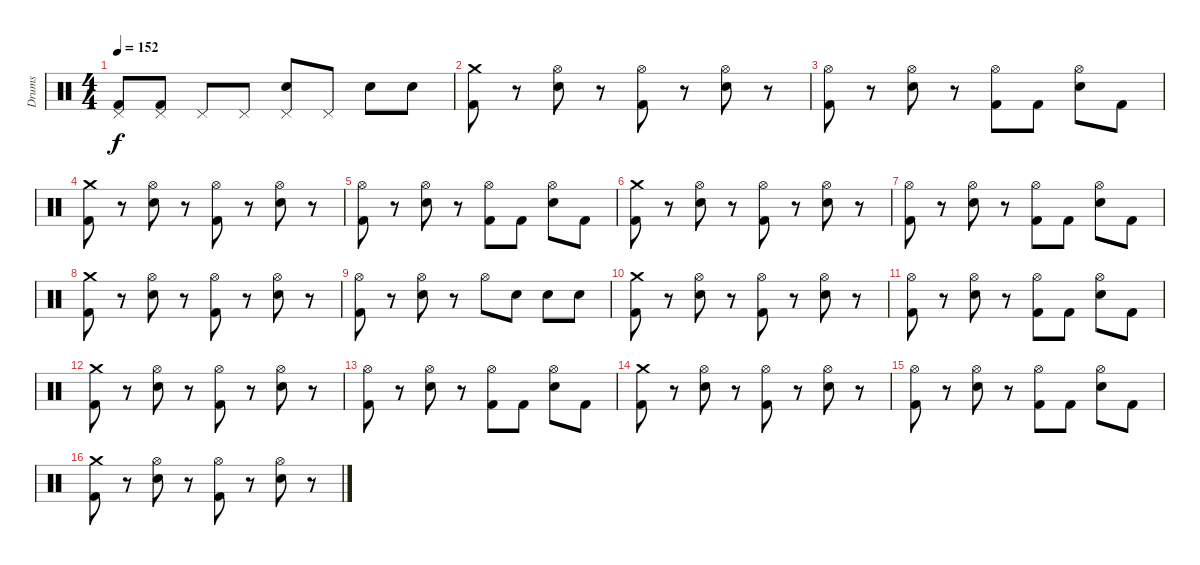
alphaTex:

\track ("Drums" "Drums") {instrument percussion}
\staff {score}
\articulation defaults
\ts (4 4)
\tempo 152
\clef neutral
\ks c
("Pedal Hi-Hat (hit)" "Kick (hit) 2").8{dy f} ("Pedal Hi-Hat (hit)" "Kick (hit) 2").8 "Pedal Hi-Hat (hit)".8 "Pedal Hi-Hat (hit)".8 ("Pedal Hi-Hat (hit)" "Electric Snare (hit)").8 "Pedal Hi-Hat (hit)".8 "Electric Snare (hit)".8 "Electric Snare (hit)".8 |
("Crash medium (hit)" "Kick (hit) 2").8 r.8 ("Hi-Hat (open)" "Electric Snare (hit)").8 r.8 ("Hi-Hat (open)" "Kick (hit) 2").8 r.8 ("Hi-Hat (open)" "Electric Snare (hit)").8 r.8 |
("Hi-Hat (open)" "Kick (hit) 2").8 r.8 ("Hi-Hat (open)" "Electric Snare (hit)").8 r.8 ("Hi-Hat (open)" "Kick (hit) 2").8 "Kick (hit) 2".8 ("Hi-Hat (open)" "Electric Snare (hit)").8 "Kick (hit) 2".8 |
("Crash medium (hit)" "Kick (hit) 2").8 r.8 ("Hi-Hat (open)" "Electric Snare (hit)").8 r.8 ("Hi-Hat (open)" "Kick (hit) 2").8 r.8 ("Hi-Hat (open)" "Electric Snare (hit)").8 r.8 |
("Hi-Hat (open)" "Kick (hit) 2").8 r.8 ("Hi-Hat (open)" "Electric Snare (hit)").8 r.8 ("Hi-Hat (open)" "Kick (hit) 2").8 "Kick (hit) 2".8 ("Hi-Hat (open)" "Electric Snare (hit)").8 "Kick (hit) 2".8 |
("Crash medium (hit)" "Kick (hit) 2").8 r.8 ("Hi-Hat (open)" "Electric Snare (hit)").8 r.8 ("Hi-Hat (open)" "Kick (hit) 2").8 r.8 ("Hi-Hat (open)" "Electric Snare (hit)").8 r.8 |
("Hi-Hat (open)" "Kick (hit) 2").8 r.8 ("Hi-Hat (open)" "Electric Snare (hit)").8 r.8 ("Hi-Hat (open)" "Kick (hit) 2").8 "Kick (hit) 2".8 ("Hi-Hat (open)" "Electric Snare (hit)").8 "Kick (hit) 2".8 |
("Crash medium (hit)" "Kick (hit) 2").8 r.8 ("Hi-Hat (open)" "Electric Snare (hit)").8 r.8 ("Hi-Hat (open)" "Kick (hit) 2").8 r.8 ("Hi-Hat (open)" "Electric Snare (hit)").8 r.8 |
("Hi-Hat (open)" "Kick (hit) 2").8 r.8 ("Hi-Hat (open)" "Electric Snare (hit)").8 r.8 "Hi-Hat (open)".8 "Electric Snare (hit)".8 "Electric Snare (hit)".8 "Electric Snare (hit)".8 |
("Crash medium (hit)" "Kick (hit) 2").8 r.8 ("Hi-Hat (open)" "Electric Snare (hit)").8 r.8 ("Hi-Hat (open)" "Kick (hit) 2").8 r.8 ("Hi-Hat (open)" "Electric Snare (hit)").8 r.8 |
("Hi-Hat (open)" "Kick (hit) 2").8 r.8 ("Hi-Hat (open)" "Electric Snare (hit)").8 r.8 ("Hi-Hat (open)" "Kick (hit) 2").8 "Kick (hit) 2".8 ("Hi-Hat (open)" "Electric Snare (hit)").8 "Kick (hit) 2".8 |
("Crash medium (hit)" "Kick (hit) 2").8 r.8 ("Hi-Hat (open)" "Electric Snare (hit)").8 r.8 ("Hi-Hat (open)" "Kick (hit) 2").8 r.8 ("Hi-Hat (open)" "Electric Snare (hit)").8 r.8 |
("Hi-Hat (open)" "Kick (hit) 2").8 r.8 ("Hi-Hat (open)" "Electric Snare (hit)").8 r.8 ("Hi-Hat (open)" "Kick (hit) 2").8 "Kick (hit) 2".8 ("Hi-Hat (open)" "Electric Snare (hit)").8 "Kick (hit) 2".8 |
("Crash medium (hit)" "Kick (hit) 2").8 r.8 ("Hi-Hat (open)" "Electric Snare (hit)").8 r.8 ("Hi-Hat (open)" "Kick (hit) 2").8 r.8 ("Hi-Hat (open)" "Electric Snare (hit)").8 r.8 |
("Hi-Hat (open)" "Kick (hit) 2").8 r.8 ("Hi-Hat (open)" "Electric Snare (hit)").8 r.8 ("Hi-Hat (open)" "Kick (hit) 2").8 "Kick (hit) 2".8 ("Hi-Hat (open)" "Electric Snare (hit)").8 "Kick (hit) 2".8 |
("Crash medium (hit)" "Kick (hit) 2").8 r.8 ("Hi-Hat (open)" "Electric Snare (hit)").8 r.8 ("Hi-Hat (open)" "Kick (hit) 2").8 r.8 ("Hi-Hat (open)" "Electric Snare (hit)").8 r.8
